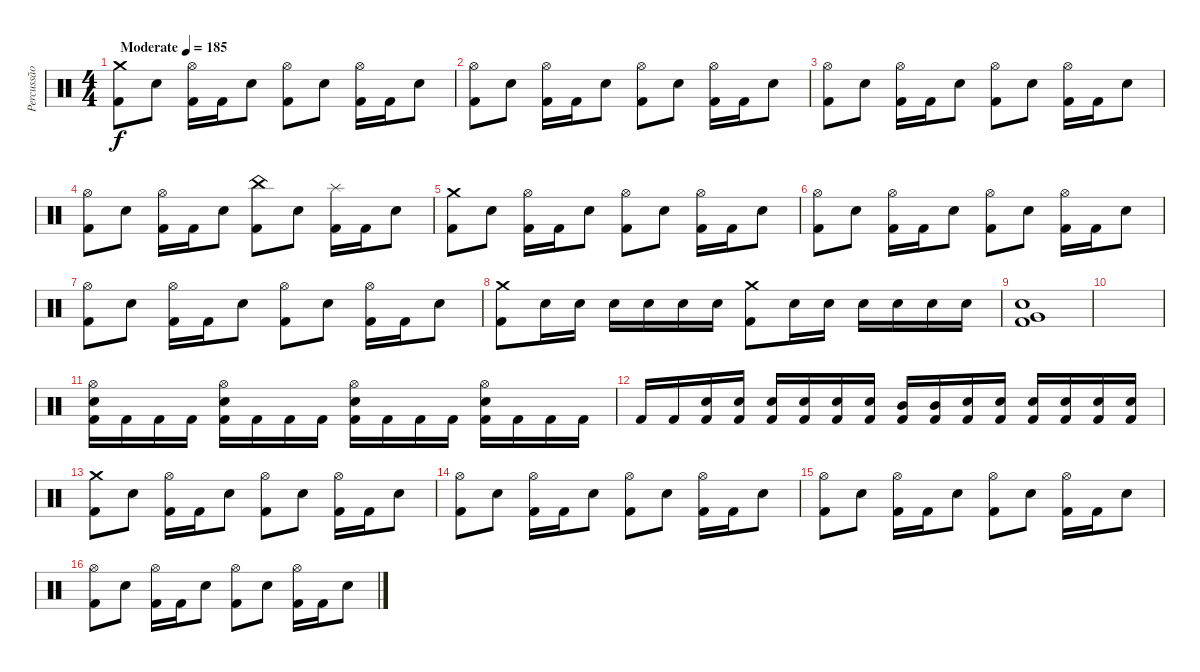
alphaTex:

\track ("Percussão" "Percussão") {instrument percussion}
\staff {score}
\articulation defaults
\ts (4 4)
\tempo (185 "Moderate")
\clef neutral
\ks c
("Crash medium (hit)" "Kick (hit) 2").8{dy f} "Snare (hit) 2".8 ("Hi-Hat (open)" "Kick (hit) 2").16 "Kick (hit) 2".16 "Snare (hit) 2".8 ("Hi-Hat (open)" "Kick (hit) 2").8 "Snare (hit) 2".8 ("Hi-Hat (open)" "Kick (hit) 2").16 "Kick (hit) 2".16 "Snare (hit) 2".8 |
("Hi-Hat (open)" "Kick (hit) 2").8 "Snare (hit) 2".8 ("Hi-Hat (open)" "Kick (hit) 2").16 "Kick (hit) 2".16 "Snare (hit) 2".8 ("Hi-Hat (open)" "Kick (hit) 2").8 "Snare (hit) 2".8 ("Hi-Hat (open)" "Kick (hit) 2").16 "Kick (hit) 2".16 "Snare (hit) 2".8 |
("Hi-Hat (open)" "Kick (hit) 2").8 "Snare (hit) 2".8 ("Hi-Hat (open)" "Kick (hit) 2").16 "Kick (hit) 2".16 "Snare (hit) 2".8 ("Hi-Hat (open)" "Kick (hit) 2").8 "Snare (hit) 2".8 ("Hi-Hat (open)" "Kick (hit) 2").16 "Kick (hit) 2".16 "Snare (hit) 2".8 |
("Hi-Hat (open)" "Kick (hit) 2").8 "Snare (hit) 2".8 ("Hi-Hat (open)" "Kick (hit) 2").16 "Kick (hit) 2".16 "Snare (hit) 2".8 ("China (hit)" "Kick (hit) 2").8 "Snare (hit) 2".8 ("Splash (hit)" "Kick (hit) 2").16 "Kick (hit) 2".16 "Snare (hit) 2".8 |
("Crash medium (hit)" "Kick (hit) 2").8 "Snare (hit) 2".8 ("Hi-Hat (open)" "Kick (hit) 2").16 "Kick (hit) 2".16 "Snare (hit) 2".8 ("Hi-Hat (open)" "Kick (hit) 2").8 "Snare (hit) 2".8 ("Hi-Hat (open)" "Kick (hit) 2").16 "Kick (hit) 2".16 "Snare (hit) 2".8 |
("Hi-Hat (open)" "Kick (hit) 2").8 "Snare (hit) 2".8 ("Hi-Hat (open)" "Kick (hit) 2").16 "Kick (hit) 2".16 "Snare (hit) 2".8 ("Hi-Hat (open)" "Kick (hit) 2").8 "Snare (hit) 2".8 ("Hi-Hat (open)" "Kick (hit) 2").16 "Kick (hit) 2".16 "Snare (hit) 2".8 |
("Hi-Hat (open)" "Kick (hit) 2").8 "Snare (hit) 2".8 ("Hi-Hat (open)" "Kick (hit) 2").16 "Kick (hit) 2".16 "Snare (hit) 2".8 ("Hi-Hat (open)" "Kick (hit) 2").8 "Snare (hit) 2".8 ("Hi-Hat (open)" "Kick (hit) 2").16 "Kick (hit) 2".16 "Snare (hit) 2".8 |
("Crash medium (hit)" "Kick (hit) 2").8 "Snare (hit) 2".16 "Snare (hit) 2".16 "Snare (hit) 2".16 "Snare (hit) 2".16 "Snare (hit) 2".16 "Snare (hit) 2".16 ("Crash medium (hit)" "Kick (hit) 2").8 "Snare (hit) 2".16 "Snare (hit) 2".16 "Snare (hit) 2".16 "Snare (hit) 2".16 "Snare (hit) 2".16 "Snare (hit) 2".16 |
("Very Low Tom (hit)" "Snare (hit) 2" "Kick (hit) 2").1 |
|
("Hi-Hat (open)" "Snare (hit) 2" "Kick (hit) 2").16 "Kick (hit) 2".16 "Kick (hit) 2".16 "Kick (hit) 2".16 ("Hi-Hat (open)" "Snare (hit) 2" "Kick (hit) 2").16 "Kick (hit) 2".16 "Kick (hit) 2".16 "Kick (hit) 2".16 ("Hi-Hat (open)" "Snare (hit) 2" "Kick (hit) 2").16 "Kick (hit) 2".16 "Kick (hit) 2".16 "Kick (hit) 2".16 ("Hi-Hat (open)" "Snare (hit) 2" "Kick (hit) 2").16 "Kick (hit) 2".16 "Kick (hit) 2".16 "Kick (hit) 2".16 |
"Kick (hit) 2".16 "Kick (hit) 2".16 ("Snare (hit) 2" "Kick (hit) 2").16 ("Snare (hit) 2" "Kick (hit) 2").16 ("Snare (hit) 2" "Kick (hit) 2").16 ("Snare (hit) 2" "Kick (hit) 2").16 ("Snare (hit) 2" "Kick (hit) 2").16 ("Snare (hit) 2" "Kick (hit) 2").16 ("Mid Tom (hit)" "Kick (hit) 2").16 ("Mid Tom (hit)" "Kick (hit) 2").16 ("Snare (hit) 2" "Kick (hit) 2").16 ("Snare (hit) 2" "Kick (hit) 2").16 ("Snare (hit) 2" "Kick (hit) 2").16 ("Snare (hit) 2" "Kick (hit) 2").16 ("Snare (hit) 2" "Kick (hit) 2").16 ("Snare (hit) 2" "Kick (hit) 2").16 |
("Crash medium (hit)" "Kick (hit) 2").8 "Snare (hit) 2".8 ("Hi-Hat (open)" "Kick (hit) 2").16 "Kick (hit) 2".16 "Snare (hit) 2".8 ("Hi-Hat (open)" "Kick (hit) 2").8 "Snare (hit) 2".8 ("Hi-Hat (open)" "Kick (hit) 2").16 "Kick (hit) 2".16 "Snare (hit) 2".8 |
("Hi-Hat (open)" "Kick (hit) 2").8 "Snare (hit) 2".8 ("Hi-Hat (open)" "Kick (hit) 2").16 "Kick (hit) 2".16 "Snare (hit) 2".8 ("Hi-Hat (open)" "Kick (hit) 2").8 "Snare (hit) 2".8 ("Hi-Hat (open)" "Kick (hit) 2").16 "Kick (hit) 2".16 "Snare (hit) 2".8 |
("Hi-Hat (open)" "Kick (hit) 2").8 "Snare (hit) 2".8 ("Hi-Hat (open)" "Kick (hit) 2").16 "Kick (hit) 2".16 "Snare (hit) 2".8 ("Hi-Hat (open)" "Kick (hit) 2").8 "Snare (hit) 2".8 ("Hi-Hat (open)" "Kick (hit) 2").16 "Kick (hit) 2".16 "Snare (hit) 2".8 |
("Hi-Hat (open)" "Kick (hit) 2").8 "Snare (hit) 2".8 ("Hi-Hat (open)" "Kick (hit) 2").16 "Kick (hit) 2".16 "Snare (hit) 2".8 ("Hi-Hat (open)" "Kick (hit) 2").8 "Snare (hit) 2".8 ("Hi-Hat (open)" "Kick (hit) 2").16 "Kick (hit) 2".16 "Snare (hit) 2".8
